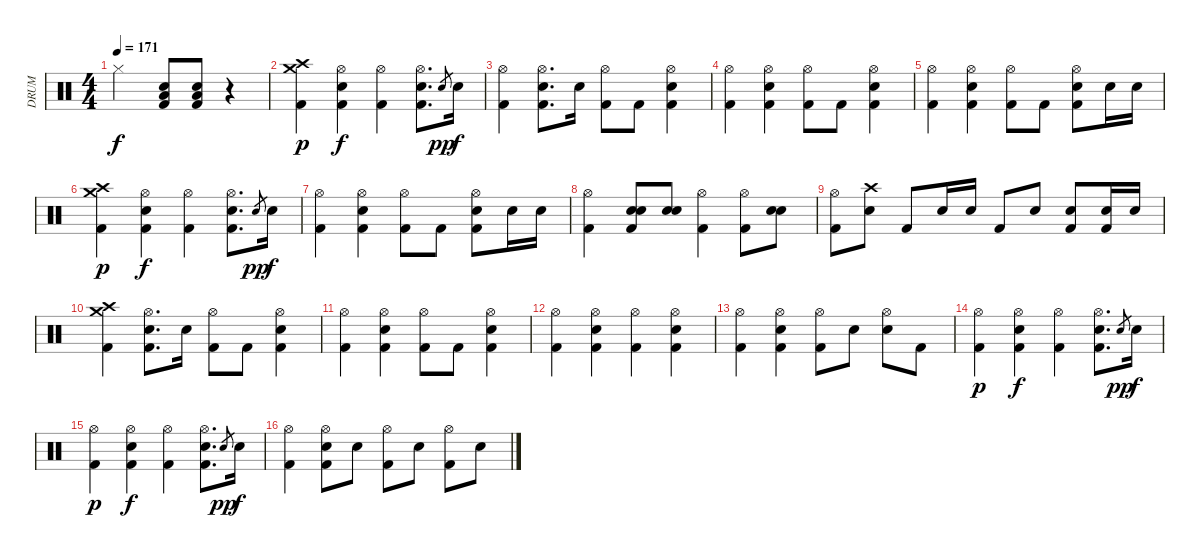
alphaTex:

\track ("DRUM" "DRUM") {instrument percussion}
\staff {score}
\articulation defaults
\ts (4 4)
\tempo 171
\clef neutral
\ks c "Hi-Hat (closed)".2{dy f}
("Electric Snare (hit)" "Low Floor Tom (hit)" "Kick (hit) 2").8 ("Electric Snare (hit)" "Low Floor Tom (hit)" "Kick (hit) 2").8 r.4 |
("Crash high (hit)" "Crash medium (hit)" "Kick (hit) 2").4{dy p} ("Hi-Hat (open)" "Electric Snare (hit)" "Kick (hit) 2").4{dy f} ("Hi-Hat (open)" "Kick (hit) 2").4 ("Hi-Hat (open)" "Electric Snare (hit)" "Kick (hit) 2").8{d} "Electric Snare (hit)".8{gr dy pp} "Electric Snare (hit)".16{dy f} |
("Hi-Hat (open)" "Kick (hit) 2").4 ("Hi-Hat (open)" "Electric Snare (hit)" "Kick (hit) 2").8{d} "Electric Snare (hit)".16 ("Hi-Hat (open)" "Kick (hit) 2").8 "Kick (hit) 2".8 ("Hi-Hat (open)" "Electric Snare (hit)" "Kick (hit) 2").4 |
("Hi-Hat (open)" "Kick (hit) 2").4 ("Hi-Hat (open)" "Electric Snare (hit)" "Kick (hit) 2").4 ("Hi-Hat (open)" "Kick (hit) 2").8 "Kick (hit) 2".8 ("Hi-Hat (open)" "Electric Snare (hit)" "Kick (hit) 2").4 |
("Hi-Hat (open)" "Kick (hit) 2").4 ("Hi-Hat (open)" "Electric Snare (hit)" "Kick (hit) 2").4 ("Hi-Hat (open)" "Kick (hit) 2").8 "Kick (hit) 2".8 ("Hi-Hat (open)" "Electric Snare (hit)" "Kick (hit) 2").8 "Electric Snare (hit)".16 "Electric Snare (hit)".16 |
("Crash high (hit)" "Crash medium (hit)" "Kick (hit) 2").4{dy p} ("Hi-Hat (open)" "Electric Snare (hit)" "Kick (hit) 2").4{dy f} ("Hi-Hat (open)" "Kick (hit) 2").4 ("Hi-Hat (open)" "Electric Snare (hit)" "Kick (hit) 2").8{d} "Electric Snare (hit)".8{gr dy pp} "Electric Snare (hit)".16{dy f} |
("Hi-Hat (open)" "Kick (hit) 2").4 ("Hi-Hat (open)" "Electric Snare (hit)" "Kick (hit) 2").4 ("Hi-Hat (open)" "Kick (hit) 2").8 "Kick (hit) 2".8 ("Hi-Hat (open)" "Electric Snare (hit)" "Kick (hit) 2").8 "Electric Snare (hit)".16 "Electric Snare (hit)".16 |
("Hi-Hat (open)" "Kick (hit) 2").4 ("Electric Snare (hit)" "Electric Snare (hit)" "Kick (hit) 2").8 ("Electric Snare (hit)" "Electric Snare (hit)").8 ("Hi-Hat (open)" "Kick (hit) 2").4 ("Hi-Hat (open)" "Kick (hit) 2").8 ("Electric Snare (hit)" "Electric Snare (hit)").8 |
("Hi-Hat (open)" "Kick (hit) 2").8 ("Crash high (hit)" "Electric Snare (hit)").8 "Kick (hit) 2".8 "Electric Snare (hit)".16 "Electric Snare (hit)".16 "Kick (hit) 2".8 "Electric Snare (hit)".8 ("Electric Snare (hit)" "Kick (hit) 2").8 ("Electric Snare (hit)" "Kick (hit) 2").16 "Electric Snare (hit)".16 |
("Crash medium (hit)" "Crash high (hit)" "Kick (hit) 2").4 ("Hi-Hat (open)" "Electric Snare (hit)" "Kick (hit) 2").8{d} "Electric Snare (hit)".16 ("Hi-Hat (open)" "Kick (hit) 2").8 "Kick (hit) 2".8 ("Hi-Hat (open)" "Electric Snare (hit)" "Kick (hit) 2").4 |
("Hi-Hat (open)" "Kick (hit) 2").4 ("Hi-Hat (open)" "Electric Snare (hit)" "Kick (hit) 2").4 ("Hi-Hat (open)" "Kick (hit) 2").8 "Kick (hit) 2".8 ("Hi-Hat (open)" "Electric Snare (hit)" "Kick (hit) 2").4 |
("Hi-Hat (open)" "Kick (hit) 2").4 ("Hi-Hat (open)" "Electric Snare (hit)" "Kick (hit) 2").4 ("Hi-Hat (open)" "Kick (hit) 2").4 ("Hi-Hat (open)" "Electric Snare (hit)" "Kick (hit) 2").4 |
("Hi-Hat (open)" "Kick (hit) 2").4 ("Hi-Hat (open)" "Electric Snare (hit)" "Kick (hit) 2").4 ("Hi-Hat (open)" "Kick (hit) 2").8 "Electric Snare (hit)".8 ("Hi-Hat (open)" "Electric Snare (hit)").8 "Kick (hit) 2".8 |
("Hi-Hat (open)" "Kick (hit) 2").4{dy p} ("Hi-Hat (open)" "Electric Snare (hit)" "Kick (hit) 2").4{dy f} ("Hi-Hat (open)" "Kick (hit) 2").4 ("Hi-Hat (open)" "Electric Snare (hit)" "Kick (hit) 2").8{d} "Electric Snare (hit)".8{gr dy pp} "Electric Snare (hit)".16{dy f} |
("Hi-Hat (open)" "Kick (hit) 2").4{dy p} ("Hi-Hat (open)" "Electric Snare (hit)" "Kick (hit) 2").4{dy f} ("Hi-Hat (open)" "Kick (hit) 2").4 ("Hi-Hat (open)" "Electric Snare (hit)" "Kick (hit) 2").8{d} "Electric Snare (hit)".8{gr dy pp} "Electric Snare (hit)".16{dy f} |
("Hi-Hat (open)" "Kick (hit) 2").4 ("Hi-Hat (open)" "Electric Snare (hit)" "Kick (hit) 2").8 "Electric Snare (hit)".8 ("Hi-Hat (open)" "Kick (hit) 2").8 "Electric Snare (hit)".8 ("Hi-Hat (open)" "Kick (hit) 2").8 "Electric Snare (hit)".8
